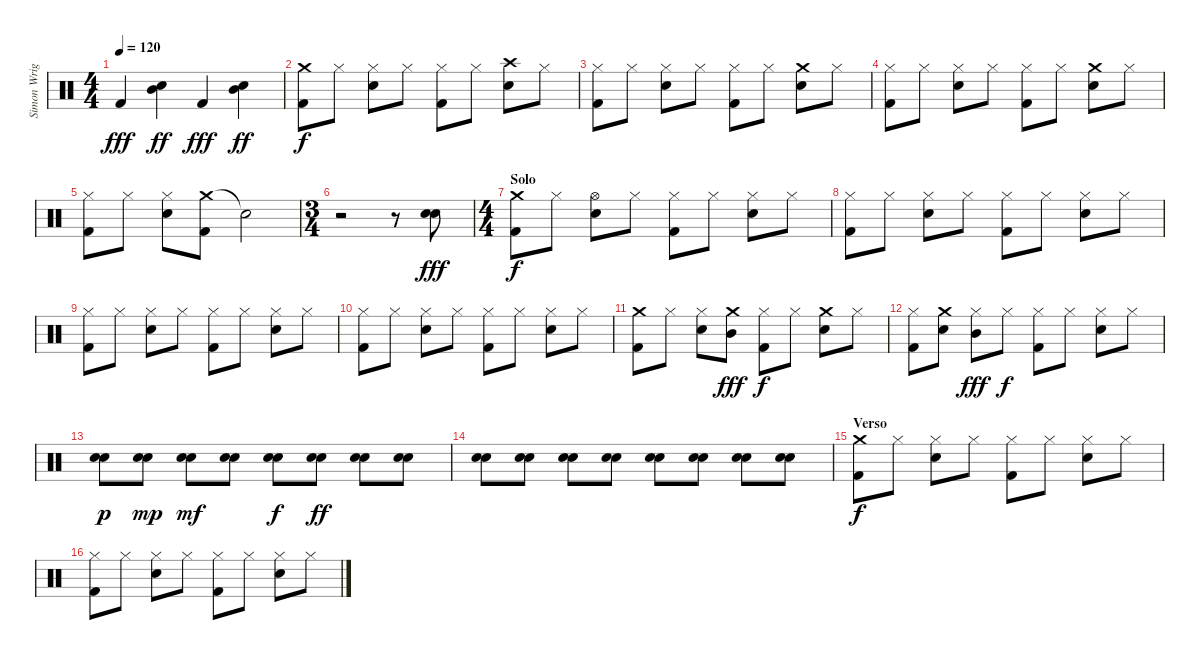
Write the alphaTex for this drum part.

\track ("Simon Wright" "Simon Wrig") {instrument percussion}
\staff {score}
\articulation defaults
\ts (4 4)
\tempo 120
\clef neutral
\ks c "Kick (hit) 2".4{dy fff}
("Snare (hit) 2" "Mid Tom (hit)").4{dy ff} "Kick (hit) 2".4{dy fff} ("Snare (hit) 2" "Mid Tom (hit)").4{dy ff} |
("Crash medium (hit)" "Kick (hit) 2").8{dy f} "Hi-Hat (closed)".8 ("Hi-Hat (closed)" "Snare (hit) 2").8 "Hi-Hat (closed)".8 ("Hi-Hat (closed)" "Kick (hit) 2").8 "Hi-Hat (closed)".8 ("Crash high (hit)" "Snare (hit) 2").8 "Hi-Hat (closed)".8 |
("Hi-Hat (closed)" "Kick (hit) 2").8 "Hi-Hat (closed)".8 ("Hi-Hat (closed)" "Snare (hit) 2").8 "Hi-Hat (closed)".8 ("Hi-Hat (closed)" "Kick (hit) 2").8 "Hi-Hat (closed)".8 ("Crash medium (hit)" "Snare (hit) 2").8 "Hi-Hat (closed)".8 |
("Hi-Hat (closed)" "Kick (hit) 2").8 "Hi-Hat (closed)".8 ("Hi-Hat (closed)" "Snare (hit) 2").8 "Hi-Hat (closed)".8 ("Hi-Hat (closed)" "Kick (hit) 2").8 "Hi-Hat (closed)".8 ("Crash medium (hit)" "Snare (hit) 2").8 "Hi-Hat (closed)".8 |
("Hi-Hat (closed)" "Kick (hit) 2").8 "Hi-Hat (closed)".8 ("Hi-Hat (closed)" "Snare (hit) 2").8 ("Crash medium (hit)" "Kick (hit) 2").8 "Snare (hit)"{t}.2 |
\ts (3 4)
r.2 r.8 ("Snare (hit) 2" "Snare (hit) 2").8{dy fff} |
\ts (4 4)
\section ("" "Solo")
("Crash medium (hit)" "Kick (hit) 2").8{dy f} "Hi-Hat (closed)".8 ("Hi-Hat (open)" "Snare (hit) 2").8 "Hi-Hat (closed)".8 ("Hi-Hat (closed)" "Kick (hit) 2").8 "Hi-Hat (closed)".8 ("Hi-Hat (closed)" "Snare (hit) 2").8 "Hi-Hat (closed)".8 |
("Hi-Hat (closed)" "Kick (hit) 2").8 "Hi-Hat (closed)".8 ("Hi-Hat (closed)" "Snare (hit) 2").8 "Hi-Hat (closed)".8 ("Hi-Hat (closed)" "Kick (hit) 2").8 "Hi-Hat (closed)".8 ("Hi-Hat (closed)" "Snare (hit) 2").8 "Hi-Hat (closed)".8 |
("Hi-Hat (closed)" "Kick (hit) 2").8 "Hi-Hat (closed)".8 ("Hi-Hat (closed)" "Snare (hit) 2").8 "Hi-Hat (closed)".8 ("Hi-Hat (closed)" "Kick (hit) 2").8 "Hi-Hat (closed)".8 ("Hi-Hat (closed)" "Snare (hit) 2").8 "Hi-Hat (closed)".8 |
("Hi-Hat (closed)" "Kick (hit) 2").8 "Hi-Hat (closed)".8 ("Hi-Hat (closed)" "Snare (hit) 2").8 "Hi-Hat (closed)".8 ("Hi-Hat (closed)" "Kick (hit) 2").8 "Hi-Hat (closed)".8 ("Hi-Hat (closed)" "Snare (hit) 2").8 "Hi-Hat (closed)".8 |
("Crash medium (hit)" "Kick (hit) 2").8 "Hi-Hat (closed)".8 ("Hi-Hat (closed)" "Snare (hit) 2").8 ("Crash medium (hit)" "Mid Tom (hit)").8{dy fff} ("Hi-Hat (closed)" "Kick (hit) 2").8{dy f} "Hi-Hat (closed)".8 ("Crash medium (hit)" "Snare (hit) 2").8 "Hi-Hat (closed)".8 |
("Hi-Hat (closed)" "Kick (hit) 2").8 ("Crash medium (hit)" "Snare (hit) 2").8 ("Hi-Hat (closed)" "Mid Tom (hit)").8{dy fff} "Hi-Hat (closed)".8{dy f} ("Hi-Hat (closed)" "Kick (hit) 2").8 "Hi-Hat (closed)".8 ("Hi-Hat (closed)" "Snare (hit) 2").8 "Hi-Hat (closed)".8 |
("Snare (hit) 2" "Snare (hit) 2").8{dy p} ("Snare (hit) 2" "Snare (hit) 2").8{dy mp} ("Snare (hit) 2" "Snare (hit) 2").8{dy mf} ("Snare (hit) 2" "Snare (hit) 2").8 ("Snare (hit) 2" "Snare (hit) 2").8{dy f} ("Snare (hit) 2" "Snare (hit) 2").8{dy ff} ("Snare (hit) 2" "Snare (hit) 2").8 ("Snare (hit) 2" "Snare (hit) 2").8 |
("Snare (hit) 2" "Snare (hit) 2").8 ("Snare (hit) 2" "Snare (hit) 2").8 ("Snare (hit) 2" "Snare (hit) 2").8 ("Snare (hit) 2" "Snare (hit) 2").8 ("Snare (hit) 2" "Snare (hit) 2").8 ("Snare (hit) 2" "Snare (hit) 2").8 ("Snare (hit) 2" "Snare (hit) 2").8 ("Snare (hit) 2" "Snare (hit) 2").8 |
\section ("" "Verso")
("Crash medium (hit)" "Kick (hit) 2").8{dy f} "Hi-Hat (closed)".8 ("Hi-Hat (closed)" "Snare (hit) 2").8 "Hi-Hat (closed)".8 ("Hi-Hat (closed)" "Kick (hit) 2").8 "Hi-Hat (closed)".8 ("Hi-Hat (closed)" "Snare (hit) 2").8 "Hi-Hat (closed)".8 |
("Hi-Hat (closed)" "Kick (hit) 2").8 "Hi-Hat (closed)".8 ("Hi-Hat (closed)" "Snare (hit) 2").8 "Hi-Hat (closed)".8 ("Hi-Hat (closed)" "Kick (hit) 2").8 "Hi-Hat (closed)".8 ("Hi-Hat (closed)" "Snare (hit) 2").8 "Hi-Hat (closed)".8
